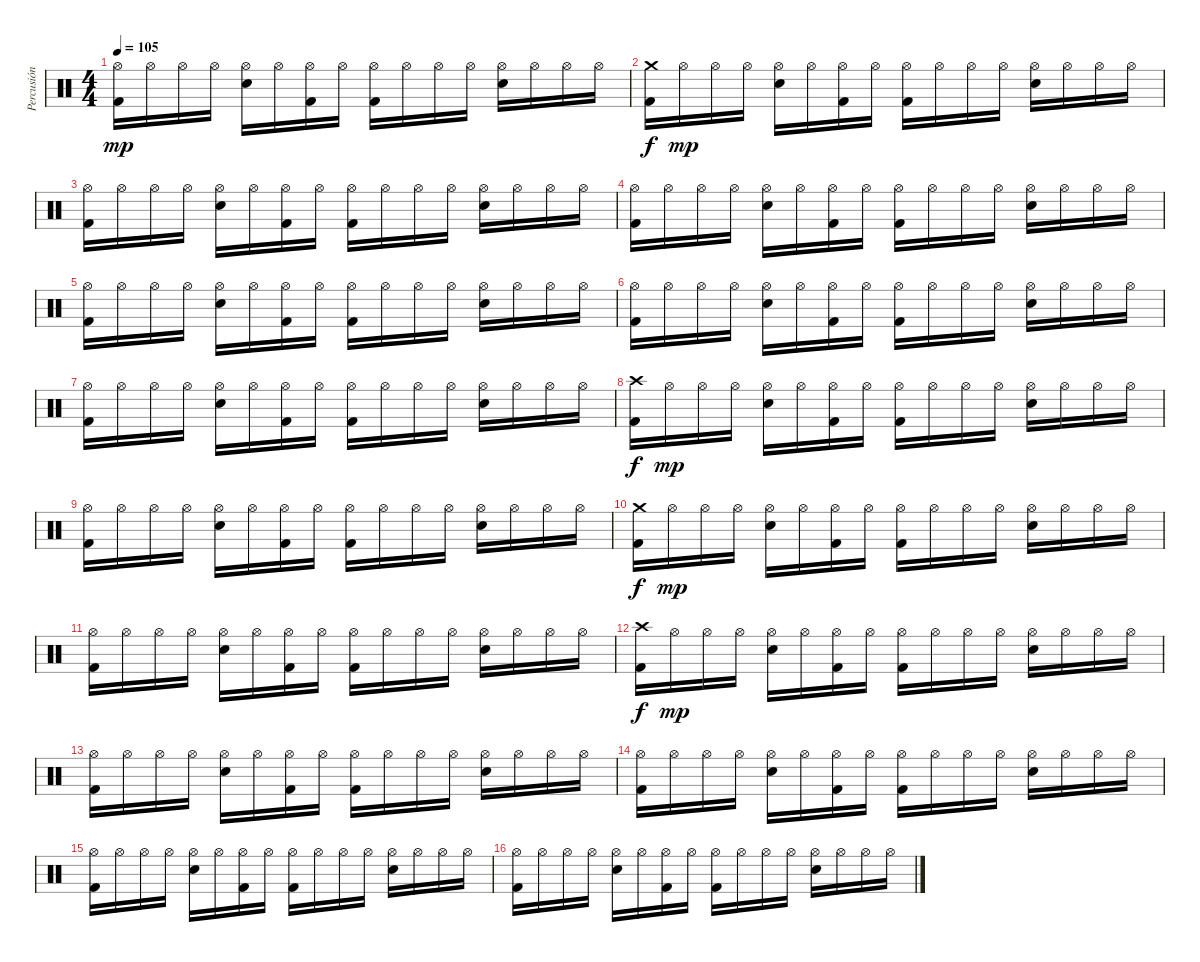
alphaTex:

\track ("Percusión" "Percusión") {instrument percussion}
\staff {score}
\articulation defaults
\ts (4 4)
\tempo 105
\clef neutral
\ks c
("Hi-Hat (open)" "Kick (hit) 2").16{dy mp} "Hi-Hat (open)".16 "Hi-Hat (open)".16 "Hi-Hat (open)".16 ("Hi-Hat (open)" "Snare (hit) 2").16 "Hi-Hat (open)".16 ("Hi-Hat (open)" "Kick (hit) 2").16 "Hi-Hat (open)".16 ("Hi-Hat (open)" "Kick (hit) 2").16 "Hi-Hat (open)".16 "Hi-Hat (open)".16 "Hi-Hat (open)".16 ("Hi-Hat (open)" "Snare (hit) 2").16 "Hi-Hat (open)".16 "Hi-Hat (open)".16 "Hi-Hat (open)".16 |
("Crash medium (hit)" "Kick (hit) 2").16{dy f} "Hi-Hat (open)".16{dy mp} "Hi-Hat (open)".16 "Hi-Hat (open)".16 ("Hi-Hat (open)" "Snare (hit) 2").16 "Hi-Hat (open)".16 ("Hi-Hat (open)" "Kick (hit) 2").16 "Hi-Hat (open)".16 ("Hi-Hat (open)" "Kick (hit) 2").16 "Hi-Hat (open)".16 "Hi-Hat (open)".16 "Hi-Hat (open)".16 ("Hi-Hat (open)" "Snare (hit) 2").16 "Hi-Hat (open)".16 "Hi-Hat (open)".16 "Hi-Hat (open)".16 |
("Hi-Hat (open)" "Kick (hit) 2").16 "Hi-Hat (open)".16 "Hi-Hat (open)".16 "Hi-Hat (open)".16 ("Hi-Hat (open)" "Snare (hit) 2").16 "Hi-Hat (open)".16 ("Hi-Hat (open)" "Kick (hit) 2").16 "Hi-Hat (open)".16 ("Hi-Hat (open)" "Kick (hit) 2").16 "Hi-Hat (open)".16 "Hi-Hat (open)".16 "Hi-Hat (open)".16 ("Hi-Hat (open)" "Snare (hit) 2").16 "Hi-Hat (open)".16 "Hi-Hat (open)".16 "Hi-Hat (open)".16 |
("Hi-Hat (open)" "Kick (hit) 2").16 "Hi-Hat (open)".16 "Hi-Hat (open)".16 "Hi-Hat (open)".16 ("Hi-Hat (open)" "Snare (hit) 2").16 "Hi-Hat (open)".16 ("Hi-Hat (open)" "Kick (hit) 2").16 "Hi-Hat (open)".16 ("Hi-Hat (open)" "Kick (hit) 2").16 "Hi-Hat (open)".16 "Hi-Hat (open)".16 "Hi-Hat (open)".16 ("Hi-Hat (open)" "Snare (hit) 2").16 "Hi-Hat (open)".16 "Hi-Hat (open)".16 "Hi-Hat (open)".16 |
("Hi-Hat (open)" "Kick (hit) 2").16 "Hi-Hat (open)".16 "Hi-Hat (open)".16 "Hi-Hat (open)".16 ("Hi-Hat (open)" "Snare (hit) 2").16 "Hi-Hat (open)".16 ("Hi-Hat (open)" "Kick (hit) 2").16 "Hi-Hat (open)".16 ("Hi-Hat (open)" "Kick (hit) 2").16 "Hi-Hat (open)".16 "Hi-Hat (open)".16 "Hi-Hat (open)".16 ("Hi-Hat (open)" "Snare (hit) 2").16 "Hi-Hat (open)".16 "Hi-Hat (open)".16 "Hi-Hat (open)".16 |
("Hi-Hat (open)" "Kick (hit) 2").16 "Hi-Hat (open)".16 "Hi-Hat (open)".16 "Hi-Hat (open)".16 ("Hi-Hat (open)" "Snare (hit) 2").16 "Hi-Hat (open)".16 ("Hi-Hat (open)" "Kick (hit) 2").16 "Hi-Hat (open)".16 ("Hi-Hat (open)" "Kick (hit) 2").16 "Hi-Hat (open)".16 "Hi-Hat (open)".16 "Hi-Hat (open)".16 ("Hi-Hat (open)" "Snare (hit) 2").16 "Hi-Hat (open)".16 "Hi-Hat (open)".16 "Hi-Hat (open)".16 |
("Hi-Hat (open)" "Kick (hit) 2").16 "Hi-Hat (open)".16 "Hi-Hat (open)".16 "Hi-Hat (open)".16 ("Hi-Hat (open)" "Snare (hit) 2").16 "Hi-Hat (open)".16 ("Hi-Hat (open)" "Kick (hit) 2").16 "Hi-Hat (open)".16 ("Hi-Hat (open)" "Kick (hit) 2").16 "Hi-Hat (open)".16 "Hi-Hat (open)".16 "Hi-Hat (open)".16 ("Hi-Hat (open)" "Snare (hit) 2").16 "Hi-Hat (open)".16 "Hi-Hat (open)".16 "Hi-Hat (open)".16 |
("Crash high (hit)" "Kick (hit) 2").16{dy f} "Hi-Hat (open)".16{dy mp} "Hi-Hat (open)".16 "Hi-Hat (open)".16 ("Hi-Hat (open)" "Snare (hit) 2").16 "Hi-Hat (open)".16 ("Hi-Hat (open)" "Kick (hit) 2").16 "Hi-Hat (open)".16 ("Hi-Hat (open)" "Kick (hit) 2").16 "Hi-Hat (open)".16 "Hi-Hat (open)".16 "Hi-Hat (open)".16 ("Hi-Hat (open)" "Snare (hit) 2").16 "Hi-Hat (open)".16 "Hi-Hat (open)".16 "Hi-Hat (open)".16 |
("Hi-Hat (open)" "Kick (hit) 2").16 "Hi-Hat (open)".16 "Hi-Hat (open)".16 "Hi-Hat (open)".16 ("Hi-Hat (open)" "Snare (hit) 2").16 "Hi-Hat (open)".16 ("Hi-Hat (open)" "Kick (hit) 2").16 "Hi-Hat (open)".16 ("Hi-Hat (open)" "Kick (hit) 2").16 "Hi-Hat (open)".16 "Hi-Hat (open)".16 "Hi-Hat (open)".16 ("Hi-Hat (open)" "Snare (hit) 2").16 "Hi-Hat (open)".16 "Hi-Hat (open)".16 "Hi-Hat (open)".16 |
("Crash medium (hit)" "Kick (hit) 2").16{dy f} "Hi-Hat (open)".16{dy mp} "Hi-Hat (open)".16 "Hi-Hat (open)".16 ("Hi-Hat (open)" "Snare (hit) 2").16 "Hi-Hat (open)".16 ("Hi-Hat (open)" "Kick (hit) 2").16 "Hi-Hat (open)".16 ("Hi-Hat (open)" "Kick (hit) 2").16 "Hi-Hat (open)".16 "Hi-Hat (open)".16 "Hi-Hat (open)".16 ("Hi-Hat (open)" "Snare (hit) 2").16 "Hi-Hat (open)".16 "Hi-Hat (open)".16 "Hi-Hat (open)".16 |
("Hi-Hat (open)" "Kick (hit) 2").16 "Hi-Hat (open)".16 "Hi-Hat (open)".16 "Hi-Hat (open)".16 ("Hi-Hat (open)" "Snare (hit) 2").16 "Hi-Hat (open)".16 ("Hi-Hat (open)" "Kick (hit) 2").16 "Hi-Hat (open)".16 ("Hi-Hat (open)" "Kick (hit) 2").16 "Hi-Hat (open)".16 "Hi-Hat (open)".16 "Hi-Hat (open)".16 ("Hi-Hat (open)" "Snare (hit) 2").16 "Hi-Hat (open)".16 "Hi-Hat (open)".16 "Hi-Hat (open)".16 |
("Crash high (hit)" "Kick (hit) 2").16{dy f} "Hi-Hat (open)".16{dy mp} "Hi-Hat (open)".16 "Hi-Hat (open)".16 ("Hi-Hat (open)" "Snare (hit) 2").16 "Hi-Hat (open)".16 ("Hi-Hat (open)" "Kick (hit) 2").16 "Hi-Hat (open)".16 ("Hi-Hat (open)" "Kick (hit) 2").16 "Hi-Hat (open)".16 "Hi-Hat (open)".16 "Hi-Hat (open)".16 ("Hi-Hat (open)" "Snare (hit) 2").16 "Hi-Hat (open)".16 "Hi-Hat (open)".16 "Hi-Hat (open)".16 |
("Hi-Hat (open)" "Kick (hit) 2").16 "Hi-Hat (open)".16 "Hi-Hat (open)".16 "Hi-Hat (open)".16 ("Hi-Hat (open)" "Snare (hit) 2").16 "Hi-Hat (open)".16 ("Hi-Hat (open)" "Kick (hit) 2").16 "Hi-Hat (open)".16 ("Hi-Hat (open)" "Kick (hit) 2").16 "Hi-Hat (open)".16 "Hi-Hat (open)".16 "Hi-Hat (open)".16 ("Hi-Hat (open)" "Snare (hit) 2").16 "Hi-Hat (open)".16 "Hi-Hat (open)".16 "Hi-Hat (open)".16 |
("Hi-Hat (open)" "Kick (hit) 2").16 "Hi-Hat (open)".16 "Hi-Hat (open)".16 "Hi-Hat (open)".16 ("Hi-Hat (open)" "Snare (hit) 2").16 "Hi-Hat (open)".16 ("Hi-Hat (open)" "Kick (hit) 2").16 "Hi-Hat (open)".16 ("Hi-Hat (open)" "Kick (hit) 2").16 "Hi-Hat (open)".16 "Hi-Hat (open)".16 "Hi-Hat (open)".16 ("Hi-Hat (open)" "Snare (hit) 2").16 "Hi-Hat (open)".16 "Hi-Hat (open)".16 "Hi-Hat (open)".16 |
("Hi-Hat (open)" "Kick (hit) 2").16 "Hi-Hat (open)".16 "Hi-Hat (open)".16 "Hi-Hat (open)".16 ("Hi-Hat (open)" "Snare (hit) 2").16 "Hi-Hat (open)".16 ("Hi-Hat (open)" "Kick (hit) 2").16 "Hi-Hat (open)".16 ("Hi-Hat (open)" "Kick (hit) 2").16 "Hi-Hat (open)".16 "Hi-Hat (open)".16 "Hi-Hat (open)".16 ("Hi-Hat (open)" "Snare (hit) 2").16 "Hi-Hat (open)".16 "Hi-Hat (open)".16 "Hi-Hat (open)".16 |
("Hi-Hat (open)" "Kick (hit) 2").16 "Hi-Hat (open)".16 "Hi-Hat (open)".16 "Hi-Hat (open)".16 ("Hi-Hat (open)" "Snare (hit) 2").16 "Hi-Hat (open)".16 ("Hi-Hat (open)" "Kick (hit) 2").16 "Hi-Hat (open)".16 ("Hi-Hat (open)" "Kick (hit) 2").16 "Hi-Hat (open)".16 "Hi-Hat (open)".16 "Hi-Hat (open)".16 ("Hi-Hat (open)" "Snare (hit) 2").16 "Hi-Hat (open)".16 "Hi-Hat (open)".16 "Hi-Hat (open)".16
